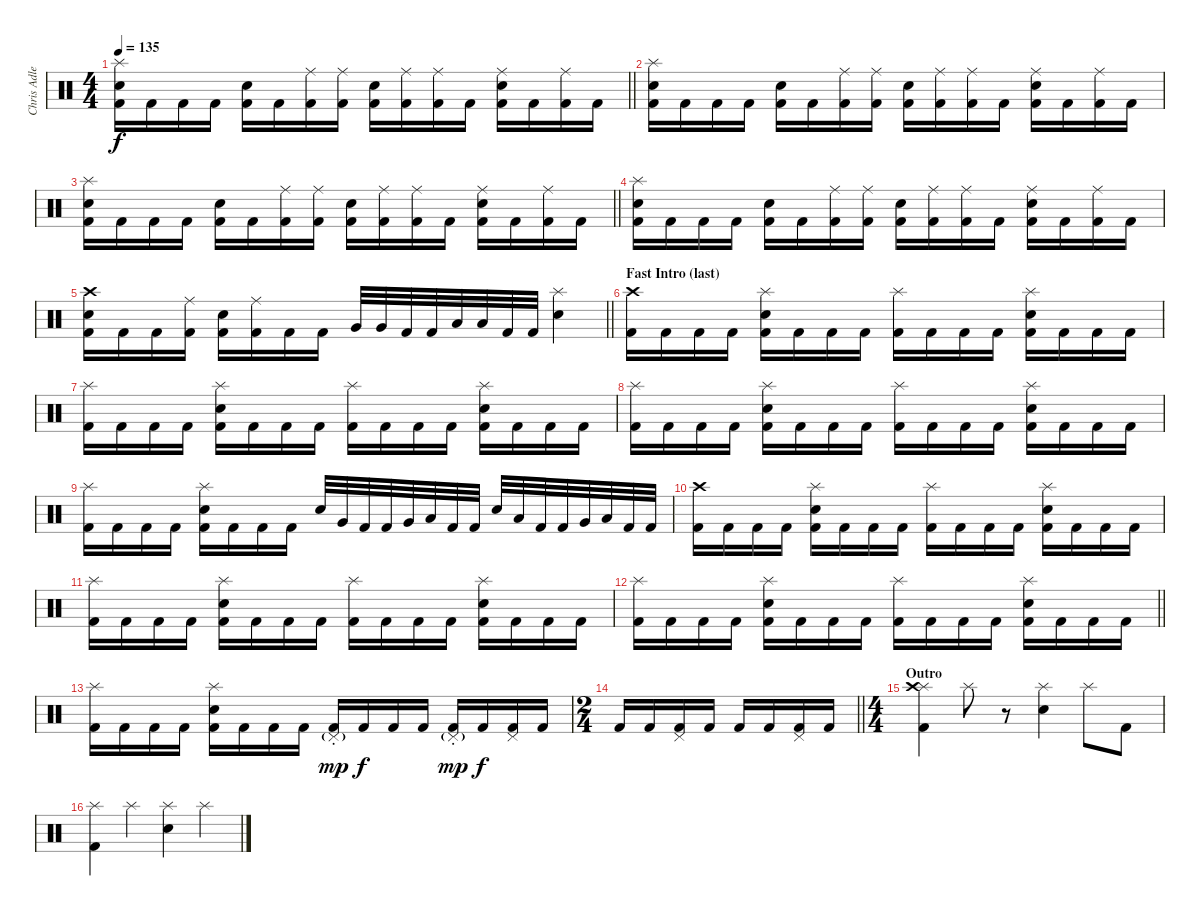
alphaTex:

\track ("Chris Adler" "Chris Adle") {instrument percussion}
\staff {score}
\articulation defaults
\ts (4 4)
\tempo 135
\clef neutral
\barLineRight lightlight
\ks c
("Splash (hit)" "Electric Snare (hit)" "Kick (hit) 2").16{dy f} "Kick (hit) 2".16 "Kick (hit) 2".16 "Kick (hit) 2".16 ("Electric Snare (hit)" "Kick (hit) 2").16 "Kick (hit) 2".16 ("Ride (middle)" "Kick (hit) 2").16 ("Ride (middle)" "Kick (hit) 2").16 ("Electric Snare (hit)" "Kick (hit) 2").16 ("Ride (middle)" "Kick (hit) 2").16 ("Ride (middle)" "Kick (hit) 2").16 "Kick (hit) 2".16 ("Ride (middle)" "Electric Snare (hit)" "Kick (hit) 2").16 "Kick (hit) 2".16 ("Ride (middle)" "Kick (hit) 2").16 "Kick (hit) 2".16 |
("Splash (hit)" "Electric Snare (hit)" "Kick (hit) 2").16 "Kick (hit) 2".16 "Kick (hit) 2".16 "Kick (hit) 2".16 ("Electric Snare (hit)" "Kick (hit) 2").16 "Kick (hit) 2".16 ("Ride (middle)" "Kick (hit) 2").16 ("Ride (middle)" "Kick (hit) 2").16 ("Electric Snare (hit)" "Kick (hit) 2").16 ("Ride (middle)" "Kick (hit) 2").16 ("Ride (middle)" "Kick (hit) 2").16 "Kick (hit) 2".16 ("Ride (middle)" "Electric Snare (hit)" "Kick (hit) 2").16 "Kick (hit) 2".16 ("Ride (middle)" "Kick (hit) 2").16 "Kick (hit) 2".16 |
\barLineRight lightlight
("Splash (hit)" "Electric Snare (hit)" "Kick (hit) 2").16 "Kick (hit) 2".16 "Kick (hit) 2".16 "Kick (hit) 2".16 ("Electric Snare (hit)" "Kick (hit) 2").16 "Kick (hit) 2".16 ("Ride (middle)" "Kick (hit) 2").16 ("Ride (middle)" "Kick (hit) 2").16 ("Electric Snare (hit)" "Kick (hit) 2").16 ("Ride (middle)" "Kick (hit) 2").16 ("Ride (middle)" "Kick (hit) 2").16 "Kick (hit) 2".16 ("Ride (middle)" "Electric Snare (hit)" "Kick (hit) 2").16 "Kick (hit) 2".16 ("Ride (middle)" "Kick (hit) 2").16 "Kick (hit) 2".16 |
("Splash (hit)" "Electric Snare (hit)" "Kick (hit) 2").16 "Kick (hit) 2".16 "Kick (hit) 2".16 "Kick (hit) 2".16 ("Electric Snare (hit)" "Kick (hit) 2").16 "Kick (hit) 2".16 ("Ride (middle)" "Kick (hit) 2").16 ("Ride (middle)" "Kick (hit) 2").16 ("Electric Snare (hit)" "Kick (hit) 2").16 ("Ride (middle)" "Kick (hit) 2").16 ("Ride (middle)" "Kick (hit) 2").16 "Kick (hit) 2".16 ("Ride (middle)" "Electric Snare (hit)" "Kick (hit) 2").16 "Kick (hit) 2".16 ("Ride (middle)" "Kick (hit) 2").16 "Kick (hit) 2".16 |
\barLineRight lightlight
("Crash high (hit)" "Electric Snare (hit)" "Kick (hit) 2").16 "Kick (hit) 2".16 "Kick (hit) 2".16 ("Ride (middle)" "Kick (hit) 2").16 ("Electric Snare (hit)" "Kick (hit) 2").16 ("Ride (middle)" "Kick (hit) 2").16 "Kick (hit) 2".16 "Kick (hit) 2".16 "Very Low Tom (hit)".32 "Very Low Tom (hit)".32 "Kick (hit) 2".32 "Kick (hit) 2".32 "Low Floor Tom (hit)".32 "Low Floor Tom (hit)".32 "Kick (hit) 2".32 "Kick (hit) 2".32 ("Splash (hit)" "Electric Snare (hit)").4 |
\section ("" "Fast Intro (last)")
("Crash high (hit)" "Kick (hit) 2").16 "Kick (hit) 2".16 "Kick (hit) 2".16 "Kick (hit) 2".16 ("Splash (hit)" "Electric Snare (hit)" "Kick (hit) 2").16 "Kick (hit) 2".16 "Kick (hit) 2".16 "Kick (hit) 2".16 ("Splash (hit)" "Kick (hit) 2").16 "Kick (hit) 2".16 "Kick (hit) 2".16 "Kick (hit) 2".16 ("Splash (hit)" "Electric Snare (hit)" "Kick (hit) 2").16 "Kick (hit) 2".16 "Kick (hit) 2".16 "Kick (hit) 2".16 |
("Splash (hit)" "Kick (hit) 2").16 "Kick (hit) 2".16 "Kick (hit) 2".16 "Kick (hit) 2".16 ("Splash (hit)" "Electric Snare (hit)" "Kick (hit) 2").16 "Kick (hit) 2".16 "Kick (hit) 2".16 "Kick (hit) 2".16 ("Splash (hit)" "Kick (hit) 2").16 "Kick (hit) 2".16 "Kick (hit) 2".16 "Kick (hit) 2".16 ("Splash (hit)" "Electric Snare (hit)" "Kick (hit) 2").16 "Kick (hit) 2".16 "Kick (hit) 2".16 "Kick (hit) 2".16 |
("Splash (hit)" "Kick (hit) 2").16 "Kick (hit) 2".16 "Kick (hit) 2".16 "Kick (hit) 2".16 ("Splash (hit)" "Electric Snare (hit)" "Kick (hit) 2").16 "Kick (hit) 2".16 "Kick (hit) 2".16 "Kick (hit) 2".16 ("Splash (hit)" "Kick (hit) 2").16 "Kick (hit) 2".16 "Kick (hit) 2".16 "Kick (hit) 2".16 ("Splash (hit)" "Electric Snare (hit)" "Kick (hit) 2").16 "Kick (hit) 2".16 "Kick (hit) 2".16 "Kick (hit) 2".16 |
("Splash (hit)" "Kick (hit) 2").16 "Kick (hit) 2".16 "Kick (hit) 2".16 "Kick (hit) 2".16 ("Splash (hit)" "Electric Snare (hit)" "Kick (hit) 2").16 "Kick (hit) 2".16 "Kick (hit) 2".16 "Kick (hit) 2".16 "Electric Snare (hit)".32 "Very Low Tom (hit)".32 "Kick (hit) 2".32 "Kick (hit) 2".32 "Very Low Tom (hit)".32 "Low Floor Tom (hit)".32 "Kick (hit) 2".32 "Kick (hit) 2".32 "Electric Snare (hit)".32 "Low Floor Tom (hit)".32 "Kick (hit) 2".32 "Kick (hit) 2".32 "Very Low Tom (hit)".32 "Low Floor Tom (hit)".32 "Kick (hit) 2".32 "Kick (hit) 2".32 |
("Crash high (hit)" "Kick (hit) 2").16 "Kick (hit) 2".16 "Kick (hit) 2".16 "Kick (hit) 2".16 ("Splash (hit)" "Electric Snare (hit)" "Kick (hit) 2").16 "Kick (hit) 2".16 "Kick (hit) 2".16 "Kick (hit) 2".16 ("Splash (hit)" "Kick (hit) 2").16 "Kick (hit) 2".16 "Kick (hit) 2".16 "Kick (hit) 2".16 ("Splash (hit)" "Electric Snare (hit)" "Kick (hit) 2").16 "Kick (hit) 2".16 "Kick (hit) 2".16 "Kick (hit) 2".16 |
("Splash (hit)" "Kick (hit) 2").16 "Kick (hit) 2".16 "Kick (hit) 2".16 "Kick (hit) 2".16 ("Splash (hit)" "Electric Snare (hit)" "Kick (hit) 2").16 "Kick (hit) 2".16 "Kick (hit) 2".16 "Kick (hit) 2".16 ("Splash (hit)" "Kick (hit) 2").16 "Kick (hit) 2".16 "Kick (hit) 2".16 "Kick (hit) 2".16 ("Splash (hit)" "Electric Snare (hit)" "Kick (hit) 2").16 "Kick (hit) 2".16 "Kick (hit) 2".16 "Kick (hit) 2".16 |
\barLineRight lightlight
("Splash (hit)" "Kick (hit) 2").16 "Kick (hit) 2".16 "Kick (hit) 2".16 "Kick (hit) 2".16 ("Splash (hit)" "Electric Snare (hit)" "Kick (hit) 2").16 "Kick (hit) 2".16 "Kick (hit) 2".16 "Kick (hit) 2".16 ("Splash (hit)" "Kick (hit) 2").16 "Kick (hit) 2".16 "Kick (hit) 2".16 "Kick (hit) 2".16 ("Splash (hit)" "Electric Snare (hit)" "Kick (hit) 2").16 "Kick (hit) 2".16 "Kick (hit) 2".16 "Kick (hit) 2".16 |
("Splash (hit)" "Kick (hit) 2").16 "Kick (hit) 2".16 "Kick (hit) 2".16 "Kick (hit) 2".16 ("Splash (hit)" "Electric Snare (hit)" "Kick (hit) 2").16 "Kick (hit) 2".16 "Kick (hit) 2".16 "Kick (hit) 2".16 ("Pedal Hi-Hat (hit)"{g st} "Kick (hit) 2").16{dy mp} "Kick (hit) 2".16{dy f} "Kick (hit) 2".16 "Kick (hit) 2".16 ("Pedal Hi-Hat (hit)"{g st} "Kick (hit) 2").16{dy mp} "Kick (hit) 2".16{dy f} ("Pedal Hi-Hat (hit)" "Kick (hit) 2").16 "Kick (hit) 2".16 |
\ts (2 4)
\barLineRight lightlight "Kick (hit) 2".16 "Kick (hit) 2".16
("Pedal Hi-Hat (hit)" "Kick (hit) 2").16 "Kick (hit) 2".16 "Kick (hit) 2".16 "Kick (hit) 2".16 ("Pedal Hi-Hat (hit)" "Kick (hit) 2").16 "Kick (hit) 2".16 |
\ts (4 4)
\section ("" "Outro")
("Splash (hit)" "Crash high (hit)" "Kick (hit) 2").4 "Splash (hit)".8 r.8 ("Splash (hit)" "Electric Snare (hit)").4 "Splash (hit)".8 "Kick (hit) 2".8 |
("Splash (hit)" "Kick (hit) 2").4 "Splash (hit)".4 ("Splash (hit)" "Electric Snare (hit)").4 "Splash (hit)".4
